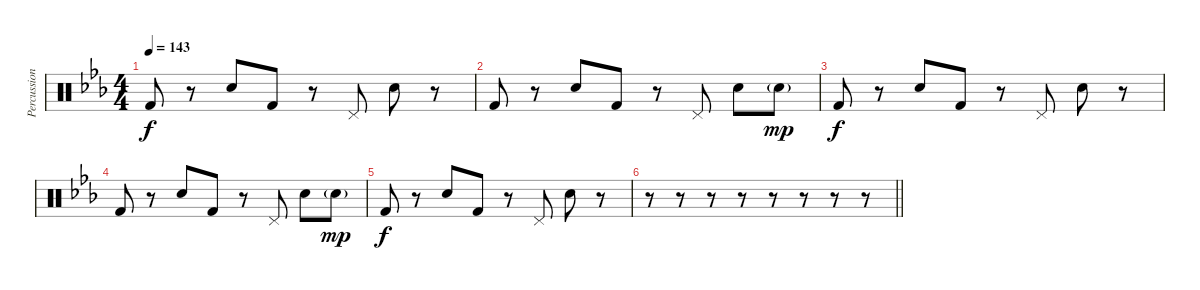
\track ("Percussion" "Percussion") {instrument percussion}
\staff {score}
\articulation defaults
\ts (4 4)
\tempo 143
\clef neutral
\ks cminor "Kick (hit) 2".8{dy f}
r.8 "Electric Snare (hit)".8 "Kick (hit) 2".8 r.8 "Pedal Hi-Hat (hit)".8 "Electric Snare (hit)".8 r.8 |
"Kick (hit) 2".8 r.8 "Electric Snare (hit)".8 "Kick (hit) 2".8 r.8 "Pedal Hi-Hat (hit)".8 "Electric Snare (hit)".8 "Electric Snare (hit)"{g}.8{dy mp} |
"Kick (hit) 2".8{dy f} r.8 "Electric Snare (hit)".8 "Kick (hit) 2".8 r.8 "Pedal Hi-Hat (hit)".8 "Electric Snare (hit)".8 r.8 |
"Kick (hit) 2".8 r.8 "Electric Snare (hit)".8 "Kick (hit) 2".8 r.8 "Pedal Hi-Hat (hit)".8 "Electric Snare (hit)".8 "Electric Snare (hit)"{g}.8{dy mp} |
"Kick (hit) 2".8{dy f} r.8 "Electric Snare (hit)".8 "Kick (hit) 2".8 r.8 "Pedal Hi-Hat (hit)".8 "Electric Snare (hit)".8 r.8 |
\barLineRight lightlight
r.8 r.8 r.8 r.8 r.8 r.8 r.8 r.8
